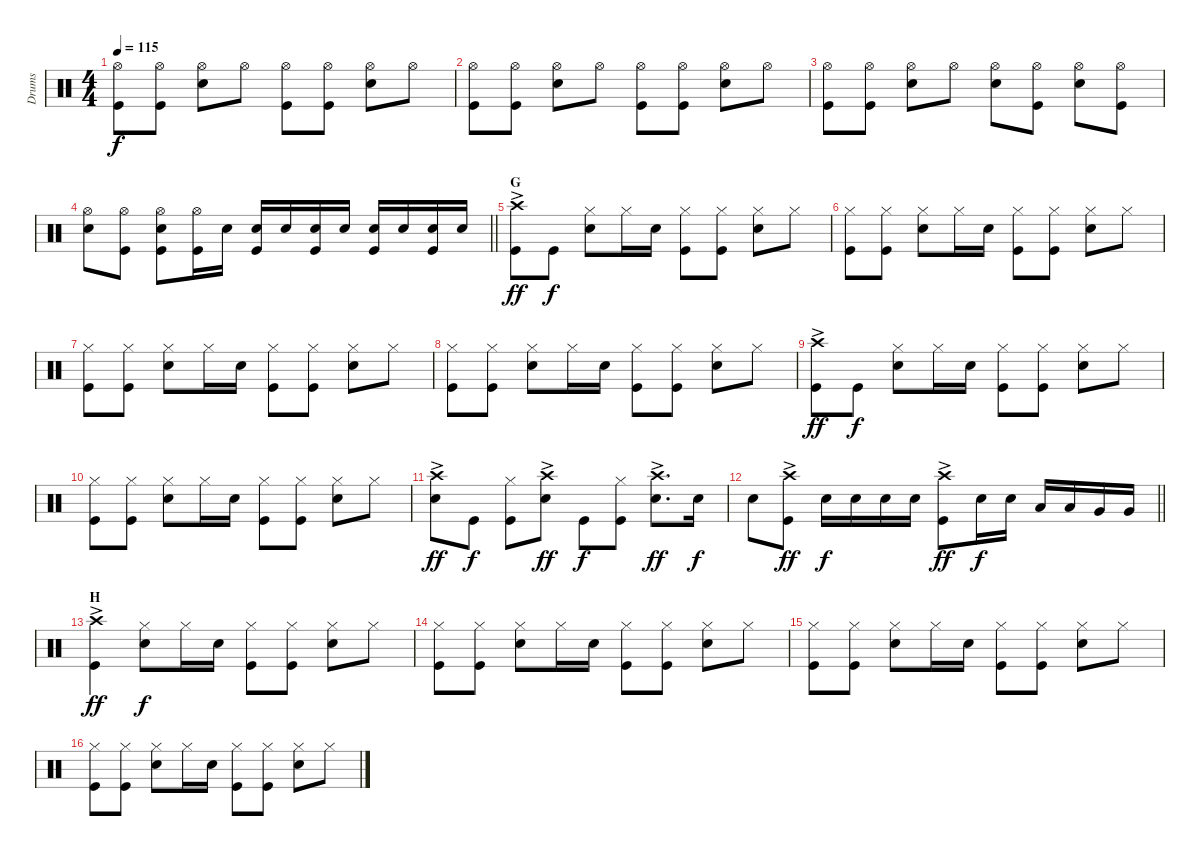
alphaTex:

\track ("Drums" "Drums") {instrument percussion}
\staff {score}
\articulation defaults
\ts (4 4)
\tempo 115
\clef neutral
\ks c
("Hi-Hat (open)" "Kick (hit)").8{dy f} ("Hi-Hat (open)" "Kick (hit)").8 ("Hi-Hat (open)" "Snare (hit) 2").8 "Hi-Hat (open)".8 ("Hi-Hat (open)" "Kick (hit)").8 ("Hi-Hat (open)" "Kick (hit)").8 ("Hi-Hat (open)" "Snare (hit) 2").8 "Hi-Hat (open)".8 |
("Hi-Hat (open)" "Kick (hit)").8 ("Hi-Hat (open)" "Kick (hit)").8 ("Hi-Hat (open)" "Snare (hit) 2").8 "Hi-Hat (open)".8 ("Hi-Hat (open)" "Kick (hit)").8 ("Hi-Hat (open)" "Kick (hit)").8 ("Hi-Hat (open)" "Snare (hit) 2").8 "Hi-Hat (open)".8 |
("Hi-Hat (open)" "Kick (hit)").8 ("Hi-Hat (open)" "Kick (hit)").8 ("Hi-Hat (open)" "Snare (hit) 2").8 "Hi-Hat (open)".8 ("Hi-Hat (open)" "Snare (hit) 2").8 ("Hi-Hat (open)" "Kick (hit)").8 ("Hi-Hat (open)" "Snare (hit) 2").8 ("Hi-Hat (open)" "Kick (hit)").8 |
\barLineRight lightlight
("Hi-Hat (open)" "Snare (hit) 2").8 ("Hi-Hat (open)" "Kick (hit)").8 ("Hi-Hat (open)" "Kick (hit)" "Snare (hit) 2").8 ("Hi-Hat (open)" "Kick (hit)").16 "Snare (hit) 2".16 ("Snare (hit) 2" "Kick (hit)").16 "Snare (hit) 2".16 ("Snare (hit) 2" "Kick (hit)").16 "Snare (hit) 2".16 ("Snare (hit) 2" "Kick (hit)").16 "Snare (hit) 2".16 ("Snare (hit) 2" "Kick (hit)").16 "Snare (hit) 2".16 |
\section ("" "G")
("Crash high (hit)"{ac} "Kick (hit)").8{dy ff} "Kick (hit)".8{dy f} ("Hi-Hat (closed)" "Snare (hit) 2").8 "Hi-Hat (closed)".16 "Snare (hit) 2".16 ("Hi-Hat (closed)" "Kick (hit)").8 ("Hi-Hat (closed)" "Kick (hit)").8 ("Hi-Hat (closed)" "Snare (hit) 2").8 "Hi-Hat (closed)".8 |
("Hi-Hat (closed)" "Kick (hit)").8 ("Hi-Hat (closed)" "Kick (hit)").8 ("Hi-Hat (closed)" "Snare (hit) 2").8 "Hi-Hat (closed)".16 "Snare (hit) 2".16 ("Hi-Hat (closed)" "Kick (hit)").8 ("Hi-Hat (closed)" "Kick (hit)").8 ("Hi-Hat (closed)" "Snare (hit) 2").8 "Hi-Hat (closed)".8 |
("Hi-Hat (closed)" "Kick (hit)").8 ("Hi-Hat (closed)" "Kick (hit)").8 ("Hi-Hat (closed)" "Snare (hit) 2").8 "Hi-Hat (closed)".16 "Snare (hit) 2".16 ("Hi-Hat (closed)" "Kick (hit)").8 ("Hi-Hat (closed)" "Kick (hit)").8 ("Hi-Hat (closed)" "Snare (hit) 2").8 "Hi-Hat (closed)".8 |
("Hi-Hat (closed)" "Kick (hit)").8 ("Hi-Hat (closed)" "Kick (hit)").8 ("Hi-Hat (closed)" "Snare (hit) 2").8 "Hi-Hat (closed)".16 "Snare (hit) 2".16 ("Hi-Hat (closed)" "Kick (hit)").8 ("Hi-Hat (closed)" "Kick (hit)").8 ("Hi-Hat (closed)" "Snare (hit) 2").8 "Hi-Hat (closed)".8 |
("Crash high (hit)"{ac} "Kick (hit)").8{dy ff} "Kick (hit)".8{dy f} ("Hi-Hat (closed)" "Snare (hit) 2").8 "Hi-Hat (closed)".16 "Snare (hit) 2".16 ("Hi-Hat (closed)" "Kick (hit)").8 ("Hi-Hat (closed)" "Kick (hit)").8 ("Hi-Hat (closed)" "Snare (hit) 2").8 "Hi-Hat (closed)".8 |
("Hi-Hat (closed)" "Kick (hit)").8 ("Hi-Hat (closed)" "Kick (hit)").8 ("Hi-Hat (closed)" "Snare (hit) 2").8 "Hi-Hat (closed)".16 "Snare (hit) 2".16 ("Hi-Hat (closed)" "Kick (hit)").8 ("Hi-Hat (closed)" "Kick (hit)").8 ("Hi-Hat (closed)" "Snare (hit) 2").8 "Hi-Hat (closed)".8 |
("Crash high (hit)"{ac} "Snare (hit) 2").8{dy ff} "Kick (hit)".8{dy f} ("Kick (hit)" "Hi-Hat (closed)").8 ("Crash high (hit)"{ac} "Snare (hit) 2").8{dy ff} "Kick (hit)".8{dy f} ("Kick (hit)" "Hi-Hat (closed)").8 ("Crash high (hit)"{ac} "Snare (hit) 2").8{d dy ff} "Snare (hit) 2".16{dy f} |
\barLineRight lightlight "Snare (hit) 2".8
("Crash high (hit)"{ac} "Kick (hit)").8{dy ff} "Snare (hit) 2".16{dy f} "Snare (hit) 2".16 "Snare (hit) 2".16 "Snare (hit) 2".16 ("Crash high (hit)"{ac} "Kick (hit)").8{dy ff} "Snare (hit) 2".16{dy f} "Snare (hit) 2".16 "Low Tom (hit)".16 "Low Tom (hit)".16 "Very Low Tom (hit)".16 "Very Low Tom (hit)".16 |
\section ("" "H")
("Crash high (hit)"{ac} "Kick (hit)").4{dy ff} ("Hi-Hat (closed)" "Snare (hit) 2").8{dy f} "Hi-Hat (closed)".16 "Snare (hit) 2".16 ("Hi-Hat (closed)" "Kick (hit)").8 ("Hi-Hat (closed)" "Kick (hit)").8 ("Hi-Hat (closed)" "Snare (hit) 2").8 "Hi-Hat (closed)".8 |
("Hi-Hat (closed)" "Kick (hit)").8 ("Hi-Hat (closed)" "Kick (hit)").8 ("Hi-Hat (closed)" "Snare (hit) 2").8 "Hi-Hat (closed)".16 "Snare (hit) 2".16 ("Hi-Hat (closed)" "Kick (hit)").8 ("Hi-Hat (closed)" "Kick (hit)").8 ("Hi-Hat (closed)" "Snare (hit) 2").8 "Hi-Hat (closed)".8 |
("Hi-Hat (closed)" "Kick (hit)").8 ("Hi-Hat (closed)" "Kick (hit)").8 ("Hi-Hat (closed)" "Snare (hit) 2").8 "Hi-Hat (closed)".16 "Snare (hit) 2".16 ("Hi-Hat (closed)" "Kick (hit)").8 ("Hi-Hat (closed)" "Kick (hit)").8 ("Hi-Hat (closed)" "Snare (hit) 2").8 "Hi-Hat (closed)".8 |
("Hi-Hat (closed)" "Kick (hit)").8 ("Hi-Hat (closed)" "Kick (hit)").8 ("Hi-Hat (closed)" "Snare (hit) 2").8 "Hi-Hat (closed)".16 "Snare (hit) 2".16 ("Hi-Hat (closed)" "Kick (hit)").8 ("Hi-Hat (closed)" "Kick (hit)").8 ("Hi-Hat (closed)" "Snare (hit) 2").8 "Hi-Hat (closed)".8
